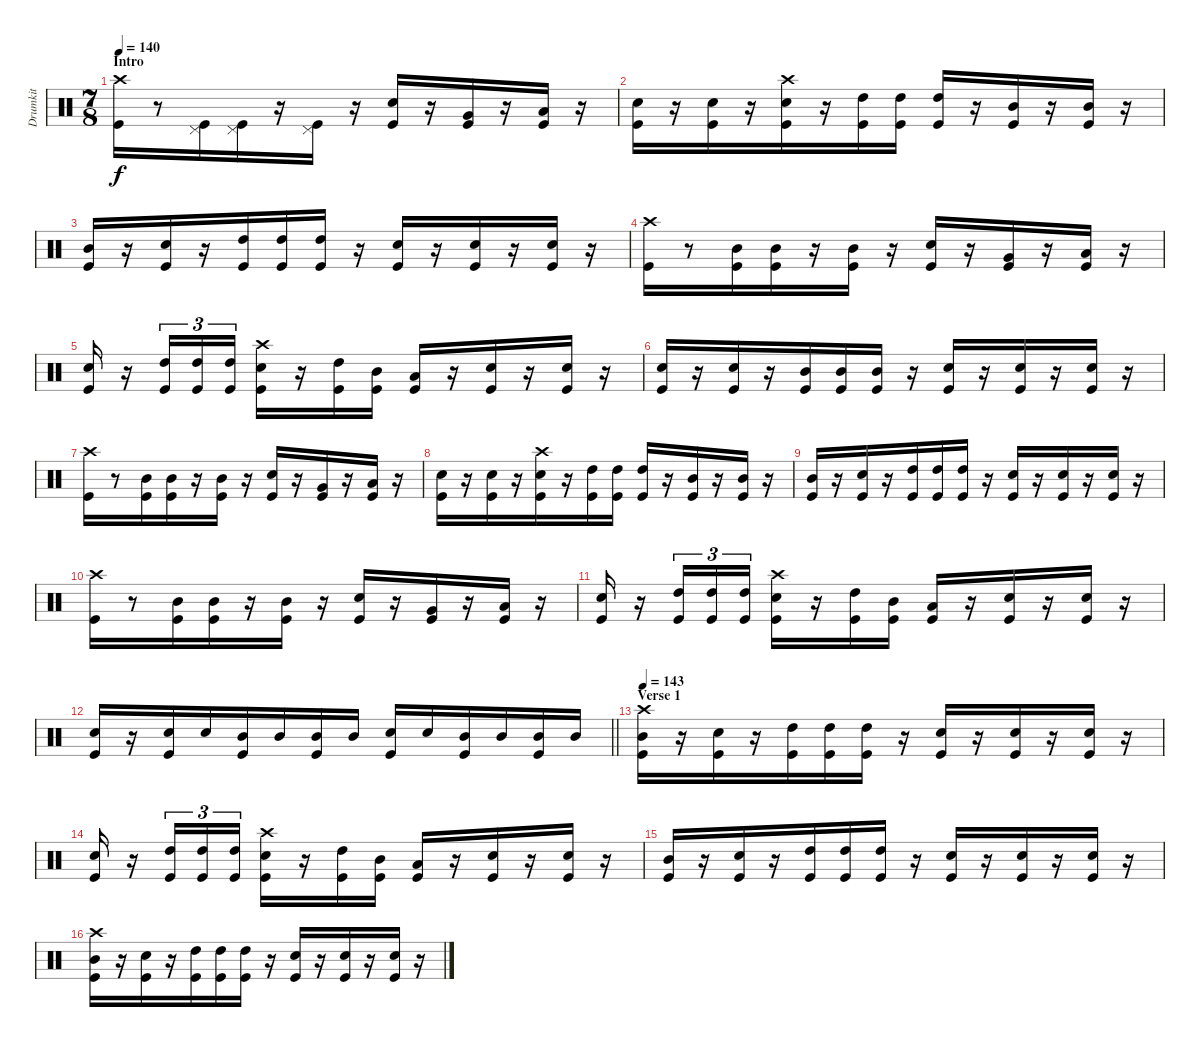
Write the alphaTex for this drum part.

\track ("Drumkit" "Drumkit") {instrument percussion}
\staff {score}
\articulation defaults
\ts (7 8)
\section ("" "Intro")
\tempo 140
\clef neutral
\ks c
("Crash high (hit)" "Kick (hit)").16{dy f} r.8 ("Pedal Hi-Hat (hit)" "Kick (hit)").16 ("Pedal Hi-Hat (hit)" "Kick (hit)").16 r.16 ("Pedal Hi-Hat (hit)" "Kick (hit)").16 r.16 ("Snare (hit) 2" "Kick (hit)").16 r.16 ("Very Low Tom (hit)" "Kick (hit)").16 r.16 ("Low Tom (hit)" "Kick (hit)").16 r.16 |
("Snare (hit) 2" "Kick (hit)").16 r.16 ("Snare (hit) 2" "Kick (hit)").16 r.16 ("Crash high (hit)" "Snare (hit) 2" "Kick (hit)").16 r.16 ("High Tom (hit)" "Kick (hit)").16 ("High Tom (hit)" "Kick (hit)").16 ("High Tom (hit)" "Kick (hit)").16 r.16 ("Mid Tom (hit)" "Kick (hit)").16 r.16 ("Mid Tom (hit)" "Kick (hit)").16 r.16 |
("Mid Tom (hit)" "Kick (hit)").16 r.16 ("Snare (hit) 2" "Kick (hit)").16 r.16 ("High Tom (hit)" "Kick (hit)").16 ("High Tom (hit)" "Kick (hit)").16 ("High Tom (hit)" "Kick (hit)").16 r.16 ("Snare (hit) 2" "Kick (hit)").16 r.16 ("Snare (hit) 2" "Kick (hit)").16 r.16 ("Snare (hit) 2" "Kick (hit)").16 r.16 |
("Crash high (hit)" "Kick (hit)").16 r.8 ("Mid Tom (hit)" "Kick (hit)").16 ("Mid Tom (hit)" "Kick (hit)").16 r.16 ("Mid Tom (hit)" "Kick (hit)").16 r.16 ("Snare (hit) 2" "Kick (hit)").16 r.16 ("Very Low Tom (hit)" "Kick (hit)").16 r.16 ("Low Tom (hit)" "Kick (hit)").16 r.16 |
("Snare (hit) 2" "Kick (hit)").16 r.16 ("High Tom (hit)" "Kick (hit)").16{tu (3 2)} ("High Tom (hit)" "Kick (hit)").16{tu (3 2)} ("High Tom (hit)" "Kick (hit)").16{tu (3 2)} ("Crash high (hit)" "Snare (hit) 2" "Kick (hit)").16 r.16 ("High Tom (hit)" "Kick (hit)").16 ("Mid Tom (hit)" "Kick (hit)").16 ("Low Tom (hit)" "Kick (hit)").16 r.16 ("Snare (hit) 2" "Kick (hit)").16 r.16 ("Snare (hit) 2" "Kick (hit)").16 r.16 |
("Snare (hit) 2" "Kick (hit)").16 r.16 ("Snare (hit) 2" "Kick (hit)").16 r.16 ("Mid Tom (hit)" "Kick (hit)").16 ("Mid Tom (hit)" "Kick (hit)").16 ("Mid Tom (hit)" "Kick (hit)").16 r.16 ("Snare (hit) 2" "Kick (hit)").16 r.16 ("Snare (hit) 2" "Kick (hit)").16 r.16 ("Snare (hit) 2" "Kick (hit)").16 r.16 |
("Crash high (hit)" "Kick (hit)").16 r.8 ("Mid Tom (hit)" "Kick (hit)").16 ("Mid Tom (hit)" "Kick (hit)").16 r.16 ("Mid Tom (hit)" "Kick (hit)").16 r.16 ("Snare (hit) 2" "Kick (hit)").16 r.16 ("Very Low Tom (hit)" "Kick (hit)").16 r.16 ("Low Tom (hit)" "Kick (hit)").16 r.16 |
("Snare (hit) 2" "Kick (hit)").16 r.16 ("Snare (hit) 2" "Kick (hit)").16 r.16 ("Crash high (hit)" "Snare (hit) 2" "Kick (hit)").16 r.16 ("High Tom (hit)" "Kick (hit)").16 ("High Tom (hit)" "Kick (hit)").16 ("High Tom (hit)" "Kick (hit)").16 r.16 ("Mid Tom (hit)" "Kick (hit)").16 r.16 ("Mid Tom (hit)" "Kick (hit)").16 r.16 |
("Mid Tom (hit)" "Kick (hit)").16 r.16 ("Snare (hit) 2" "Kick (hit)").16 r.16 ("High Tom (hit)" "Kick (hit)").16 ("High Tom (hit)" "Kick (hit)").16 ("High Tom (hit)" "Kick (hit)").16 r.16 ("Snare (hit) 2" "Kick (hit)").16 r.16 ("Snare (hit) 2" "Kick (hit)").16 r.16 ("Snare (hit) 2" "Kick (hit)").16 r.16 |
("Crash high (hit)" "Kick (hit)").16 r.8 ("Mid Tom (hit)" "Kick (hit)").16 ("Mid Tom (hit)" "Kick (hit)").16 r.16 ("Mid Tom (hit)" "Kick (hit)").16 r.16 ("Snare (hit) 2" "Kick (hit)").16 r.16 ("Very Low Tom (hit)" "Kick (hit)").16 r.16 ("Low Tom (hit)" "Kick (hit)").16 r.16 |
("Snare (hit) 2" "Kick (hit)").16 r.16 ("High Tom (hit)" "Kick (hit)").16{tu (3 2)} ("High Tom (hit)" "Kick (hit)").16{tu (3 2)} ("High Tom (hit)" "Kick (hit)").16{tu (3 2)} ("Crash high (hit)" "Snare (hit) 2" "Kick (hit)").16 r.16 ("High Tom (hit)" "Kick (hit)").16 ("Mid Tom (hit)" "Kick (hit)").16 ("Low Tom (hit)" "Kick (hit)").16 r.16 ("Snare (hit) 2" "Kick (hit)").16 r.16 ("Snare (hit) 2" "Kick (hit)").16 r.16 |
\barLineRight lightlight
("Snare (hit) 2" "Kick (hit)").16 r.16 ("Snare (hit) 2" "Kick (hit)").16 "Snare (hit) 2".16 ("Mid Tom (hit)" "Kick (hit)").16 "Mid Tom (hit)".16 ("Mid Tom (hit)" "Kick (hit)").16 "Mid Tom (hit)".16 ("Snare (hit) 2" "Kick (hit)").16 "Snare (hit) 2".16 ("Mid Tom (hit)" "Kick (hit)").16 "Mid Tom (hit)".16 ("Mid Tom (hit)" "Kick (hit)").16 "Mid Tom (hit)".16 |
\section ("" "Verse 1")
\tempo 143
("Crash high (hit)" "Mid Tom (hit)" "Kick (hit)").16 r.16 ("Snare (hit) 2" "Kick (hit)").16 r.16 ("High Tom (hit)" "Kick (hit)").16 ("High Tom (hit)" "Kick (hit)").16 ("High Tom (hit)" "Kick (hit)").16 r.16 ("Snare (hit) 2" "Kick (hit)").16 r.16 ("Snare (hit) 2" "Kick (hit)").16 r.16 ("Snare (hit) 2" "Kick (hit)").16 r.16 |
("Snare (hit) 2" "Kick (hit)").16 r.16 ("High Tom (hit)" "Kick (hit)").16{tu (3 2)} ("High Tom (hit)" "Kick (hit)").16{tu (3 2)} ("High Tom (hit)" "Kick (hit)").16{tu (3 2)} ("Crash high (hit)" "Snare (hit) 2" "Kick (hit)").16 r.16 ("High Tom (hit)" "Kick (hit)").16 ("Mid Tom (hit)" "Kick (hit)").16 ("Low Tom (hit)" "Kick (hit)").16 r.16 ("Snare (hit) 2" "Kick (hit)").16 r.16 ("Snare (hit) 2" "Kick (hit)").16 r.16 |
("Mid Tom (hit)" "Kick (hit)").16 r.16 ("Snare (hit) 2" "Kick (hit)").16 r.16 ("High Tom (hit)" "Kick (hit)").16 ("High Tom (hit)" "Kick (hit)").16 ("High Tom (hit)" "Kick (hit)").16 r.16 ("Snare (hit) 2" "Kick (hit)").16 r.16 ("Snare (hit) 2" "Kick (hit)").16 r.16 ("Snare (hit) 2" "Kick (hit)").16 r.16 |
("Crash high (hit)" "Mid Tom (hit)" "Kick (hit)").16 r.16 ("Snare (hit) 2" "Kick (hit)").16 r.16 ("High Tom (hit)" "Kick (hit)").16 ("High Tom (hit)" "Kick (hit)").16 ("High Tom (hit)" "Kick (hit)").16 r.16 ("Snare (hit) 2" "Kick (hit)").16 r.16 ("Snare (hit) 2" "Kick (hit)").16 r.16 ("Snare (hit) 2" "Kick (hit)").16 r.16
